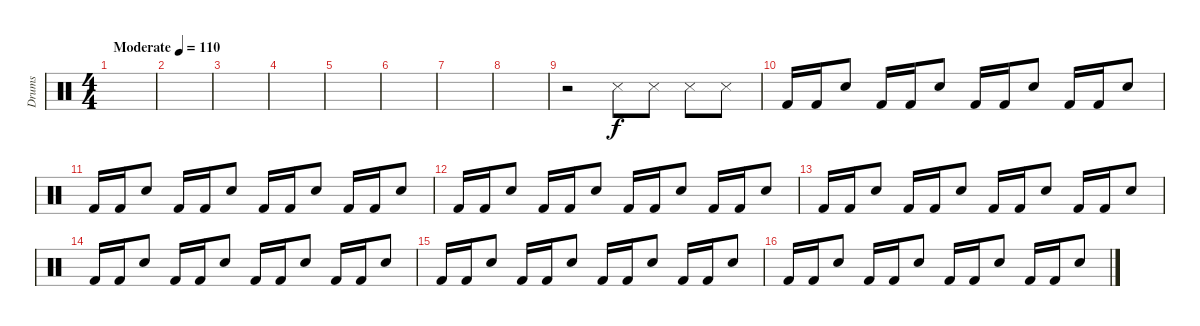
\track ("Drums" "Drums") {instrument percussion}
\staff {score}
\articulation defaults
\ts (4 4)
\tempo (110 "Moderate")
\clef neutral
\ks c
|
|
|
|
|
|
|
|
r.2 "Snare (side stick) 3".8 "Snare (side stick) 3".8 "Snare (side stick) 3".8 "Snare (side stick) 3".8 |
"Kick (hit) 2".16 "Kick (hit) 2".16 "Snare (hit) 2".8 "Kick (hit) 2".16 "Kick (hit) 2".16 "Snare (hit) 2".8 "Kick (hit) 2".16 "Kick (hit) 2".16 "Snare (hit) 2".8 "Kick (hit) 2".16 "Kick (hit) 2".16 "Snare (hit) 2".8 |
"Kick (hit) 2".16 "Kick (hit) 2".16 "Snare (hit) 2".8 "Kick (hit) 2".16 "Kick (hit) 2".16 "Snare (hit) 2".8 "Kick (hit) 2".16 "Kick (hit) 2".16 "Snare (hit) 2".8 "Kick (hit) 2".16 "Kick (hit) 2".16 "Snare (hit) 2".8 |
"Kick (hit) 2".16 "Kick (hit) 2".16 "Snare (hit) 2".8 "Kick (hit) 2".16 "Kick (hit) 2".16 "Snare (hit) 2".8 "Kick (hit) 2".16 "Kick (hit) 2".16 "Snare (hit) 2".8 "Kick (hit) 2".16 "Kick (hit) 2".16 "Snare (hit) 2".8 |
"Kick (hit) 2".16 "Kick (hit) 2".16 "Snare (hit) 2".8 "Kick (hit) 2".16 "Kick (hit) 2".16 "Snare (hit) 2".8 "Kick (hit) 2".16 "Kick (hit) 2".16 "Snare (hit) 2".8 "Kick (hit) 2".16 "Kick (hit) 2".16 "Snare (hit) 2".8 |
"Kick (hit) 2".16 "Kick (hit) 2".16 "Snare (hit) 2".8 "Kick (hit) 2".16 "Kick (hit) 2".16 "Snare (hit) 2".8 "Kick (hit) 2".16 "Kick (hit) 2".16 "Snare (hit) 2".8 "Kick (hit) 2".16 "Kick (hit) 2".16 "Snare (hit) 2".8 |
"Kick (hit) 2".16 "Kick (hit) 2".16 "Snare (hit) 2".8 "Kick (hit) 2".16 "Kick (hit) 2".16 "Snare (hit) 2".8 "Kick (hit) 2".16 "Kick (hit) 2".16 "Snare (hit) 2".8 "Kick (hit) 2".16 "Kick (hit) 2".16 "Snare (hit) 2".8 |
"Kick (hit) 2".16 "Kick (hit) 2".16 "Snare (hit) 2".8 "Kick (hit) 2".16 "Kick (hit) 2".16 "Snare (hit) 2".8 "Kick (hit) 2".16 "Kick (hit) 2".16 "Snare (hit) 2".8 "Kick (hit) 2".16 "Kick (hit) 2".16 "Snare (hit) 2".8
